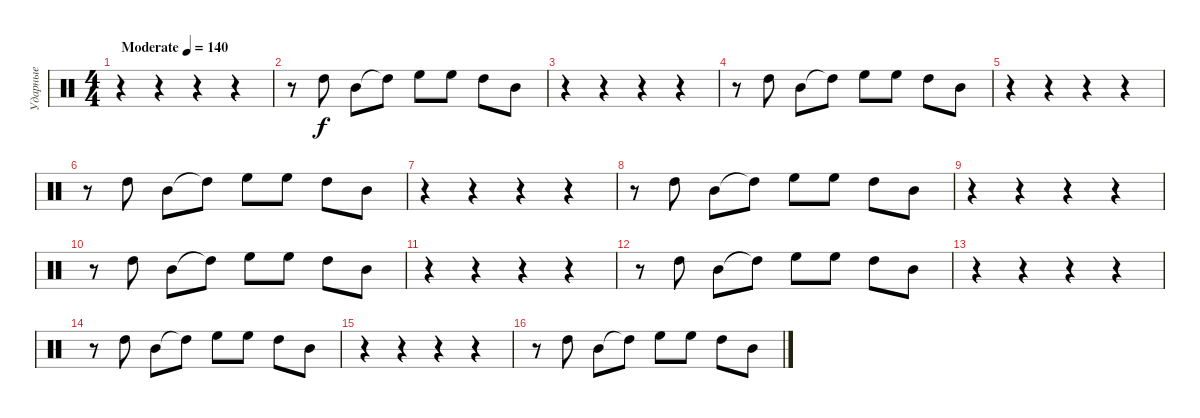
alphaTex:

\track ("Ударные" "Ударные") {instrument percussion}
\staff {score}
\articulation defaults
\ts (4 4)
\tempo (140 "Moderate")
\clef neutral
\ks c
r.4{dy f} r.4 r.4 r.4 |
r.8 "High Tom (hit)".8 "Mid Tom (hit)".8 "High Tom (hit)"{t}.8 "High Floor Tom (hit)".8 "High Floor Tom (hit)".8 "High Tom (hit)".8 "Mid Tom (hit)".8 |
r.4 r.4 r.4 r.4 |
r.8 "High Tom (hit)".8 "Mid Tom (hit)".8 "High Tom (hit)"{t}.8 "High Floor Tom (hit)".8 "High Floor Tom (hit)".8 "High Tom (hit)".8 "Mid Tom (hit)".8 |
r.4 r.4 r.4 r.4 |
r.8 "High Tom (hit)".8 "Mid Tom (hit)".8 "High Tom (hit)"{t}.8 "High Floor Tom (hit)".8 "High Floor Tom (hit)".8 "High Tom (hit)".8 "Mid Tom (hit)".8 |
r.4 r.4 r.4 r.4 |
r.8 "High Tom (hit)".8 "Mid Tom (hit)".8 "High Tom (hit)"{t}.8 "High Floor Tom (hit)".8 "High Floor Tom (hit)".8 "High Tom (hit)".8 "Mid Tom (hit)".8 |
r.4 r.4 r.4 r.4 |
r.8 "High Tom (hit)".8 "Mid Tom (hit)".8 "High Tom (hit)"{t}.8 "High Floor Tom (hit)".8 "High Floor Tom (hit)".8 "High Tom (hit)".8 "Mid Tom (hit)".8 |
r.4 r.4 r.4 r.4 |
r.8 "High Tom (hit)".8 "Mid Tom (hit)".8 "High Tom (hit)"{t}.8 "High Floor Tom (hit)".8 "High Floor Tom (hit)".8 "High Tom (hit)".8 "Mid Tom (hit)".8 |
r.4 r.4 r.4 r.4 |
r.8 "High Tom (hit)".8 "Mid Tom (hit)".8 "High Tom (hit)"{t}.8 "High Floor Tom (hit)".8 "High Floor Tom (hit)".8 "High Tom (hit)".8 "Mid Tom (hit)".8 |
r.4 r.4 r.4 r.4 |
r.8 "High Tom (hit)".8 "Mid Tom (hit)".8 "High Tom (hit)"{t}.8 "High Floor Tom (hit)".8 "High Floor Tom (hit)".8 "High Tom (hit)".8 "Mid Tom (hit)".8
